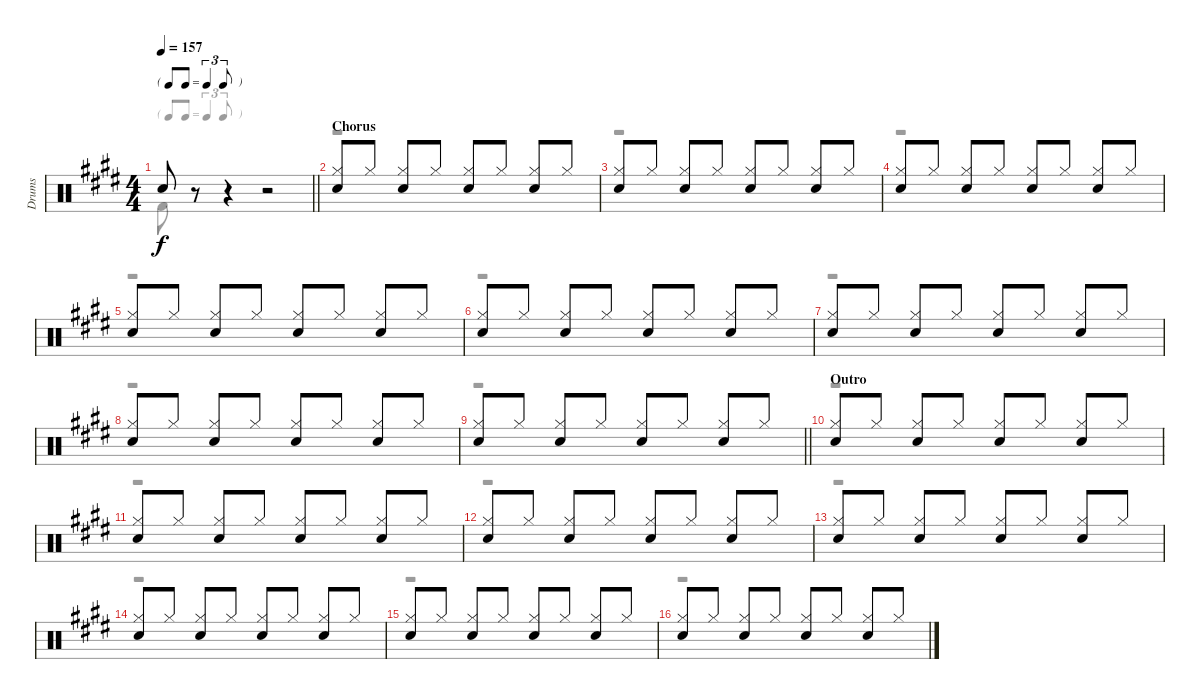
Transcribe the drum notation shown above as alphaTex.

\track ("Drums" "Drums") {instrument percussion}
\staff {score}
\articulation defaults
\voice
\ts (4 4)
\tf triplet8th
\tempo 157
\clef neutral
\barLineRight lightlight
\ks e "Snare (hit) 2".8{dy f}
r.8 r.4 r.2 |
\section ("" "Chorus")
("Hi-Hat (closed)" "Snare (hit) 2").8 "Hi-Hat (closed)".8 ("Hi-Hat (closed)" "Snare (hit) 2").8 "Hi-Hat (closed)".8 ("Hi-Hat (closed)" "Snare (hit) 2").8 "Hi-Hat (closed)".8 ("Hi-Hat (closed)" "Snare (hit) 2").8 "Hi-Hat (closed)".8 |
("Hi-Hat (closed)" "Snare (hit) 2").8 "Hi-Hat (closed)".8 ("Hi-Hat (closed)" "Snare (hit) 2").8 "Hi-Hat (closed)".8 ("Hi-Hat (closed)" "Snare (hit) 2").8 "Hi-Hat (closed)".8 ("Hi-Hat (closed)" "Snare (hit) 2").8 "Hi-Hat (closed)".8 |
("Hi-Hat (closed)" "Snare (hit) 2").8 "Hi-Hat (closed)".8 ("Hi-Hat (closed)" "Snare (hit) 2").8 "Hi-Hat (closed)".8 ("Hi-Hat (closed)" "Snare (hit) 2").8 "Hi-Hat (closed)".8 ("Hi-Hat (closed)" "Snare (hit) 2").8 "Hi-Hat (closed)".8 |
("Hi-Hat (closed)" "Snare (hit) 2").8 "Hi-Hat (closed)".8 ("Hi-Hat (closed)" "Snare (hit) 2").8 "Hi-Hat (closed)".8 ("Hi-Hat (closed)" "Snare (hit) 2").8 "Hi-Hat (closed)".8 ("Hi-Hat (closed)" "Snare (hit) 2").8 "Hi-Hat (closed)".8 |
("Hi-Hat (closed)" "Snare (hit) 2").8 "Hi-Hat (closed)".8 ("Hi-Hat (closed)" "Snare (hit) 2").8 "Hi-Hat (closed)".8 ("Hi-Hat (closed)" "Snare (hit) 2").8 "Hi-Hat (closed)".8 ("Hi-Hat (closed)" "Snare (hit) 2").8 "Hi-Hat (closed)".8 |
("Hi-Hat (closed)" "Snare (hit) 2").8 "Hi-Hat (closed)".8 ("Hi-Hat (closed)" "Snare (hit) 2").8 "Hi-Hat (closed)".8 ("Hi-Hat (closed)" "Snare (hit) 2").8 "Hi-Hat (closed)".8 ("Hi-Hat (closed)" "Snare (hit) 2").8 "Hi-Hat (closed)".8 |
("Hi-Hat (closed)" "Snare (hit) 2").8 "Hi-Hat (closed)".8 ("Hi-Hat (closed)" "Snare (hit) 2").8 "Hi-Hat (closed)".8 ("Hi-Hat (closed)" "Snare (hit) 2").8 "Hi-Hat (closed)".8 ("Hi-Hat (closed)" "Snare (hit) 2").8 "Hi-Hat (closed)".8 |
\barLineRight lightlight
("Hi-Hat (closed)" "Snare (hit) 2").8 "Hi-Hat (closed)".8 ("Hi-Hat (closed)" "Snare (hit) 2").8 "Hi-Hat (closed)".8 ("Hi-Hat (closed)" "Snare (hit) 2").8 "Hi-Hat (closed)".8 ("Hi-Hat (closed)" "Snare (hit) 2").8 "Hi-Hat (closed)".8 |
\section ("" "Outro")
("Hi-Hat (closed)" "Snare (hit) 2").8 "Hi-Hat (closed)".8 ("Hi-Hat (closed)" "Snare (hit) 2").8 "Hi-Hat (closed)".8 ("Hi-Hat (closed)" "Snare (hit) 2").8 "Hi-Hat (closed)".8 ("Hi-Hat (closed)" "Snare (hit) 2").8 "Hi-Hat (closed)".8 |
("Hi-Hat (closed)" "Snare (hit) 2").8 "Hi-Hat (closed)".8 ("Hi-Hat (closed)" "Snare (hit) 2").8 "Hi-Hat (closed)".8 ("Hi-Hat (closed)" "Snare (hit) 2").8 "Hi-Hat (closed)".8 ("Hi-Hat (closed)" "Snare (hit) 2").8 "Hi-Hat (closed)".8 |
("Hi-Hat (closed)" "Snare (hit) 2").8 "Hi-Hat (closed)".8 ("Hi-Hat (closed)" "Snare (hit) 2").8 "Hi-Hat (closed)".8 ("Hi-Hat (closed)" "Snare (hit) 2").8 "Hi-Hat (closed)".8 ("Hi-Hat (closed)" "Snare (hit) 2").8 "Hi-Hat (closed)".8 |
("Hi-Hat (closed)" "Snare (hit) 2").8 "Hi-Hat (closed)".8 ("Hi-Hat (closed)" "Snare (hit) 2").8 "Hi-Hat (closed)".8 ("Hi-Hat (closed)" "Snare (hit) 2").8 "Hi-Hat (closed)".8 ("Hi-Hat (closed)" "Snare (hit) 2").8 "Hi-Hat (closed)".8 |
("Hi-Hat (closed)" "Snare (hit) 2").8 "Hi-Hat (closed)".8 ("Hi-Hat (closed)" "Snare (hit) 2").8 "Hi-Hat (closed)".8 ("Hi-Hat (closed)" "Snare (hit) 2").8 "Hi-Hat (closed)".8 ("Hi-Hat (closed)" "Snare (hit) 2").8 "Hi-Hat (closed)".8 |
("Hi-Hat (closed)" "Snare (hit) 2").8 "Hi-Hat (closed)".8 ("Hi-Hat (closed)" "Snare (hit) 2").8 "Hi-Hat (closed)".8 ("Hi-Hat (closed)" "Snare (hit) 2").8 "Hi-Hat (closed)".8 ("Hi-Hat (closed)" "Snare (hit) 2").8 "Hi-Hat (closed)".8 |
("Hi-Hat (closed)" "Snare (hit) 2").8 "Hi-Hat (closed)".8 ("Hi-Hat (closed)" "Snare (hit) 2").8 "Hi-Hat (closed)".8 ("Hi-Hat (closed)" "Snare (hit) 2").8 "Hi-Hat (closed)".8 ("Hi-Hat (closed)" "Snare (hit) 2").8 "Hi-Hat (closed)".8
\voice
\clef neutral
\ottava regular
\simile none
\barLineRight lightlight
\ks e "Kick (hit) 2".8{dy f}
r.8 r.4 r.2 |
r.1 |
r.1 |
r.1 |
r.1 |
r.1 |
r.1 |
r.1 |
\barLineRight lightlight
r.1 |
r.1 |
r.1 |
r.1 |
r.1 |
r.1 |
r.1 |
r.1
